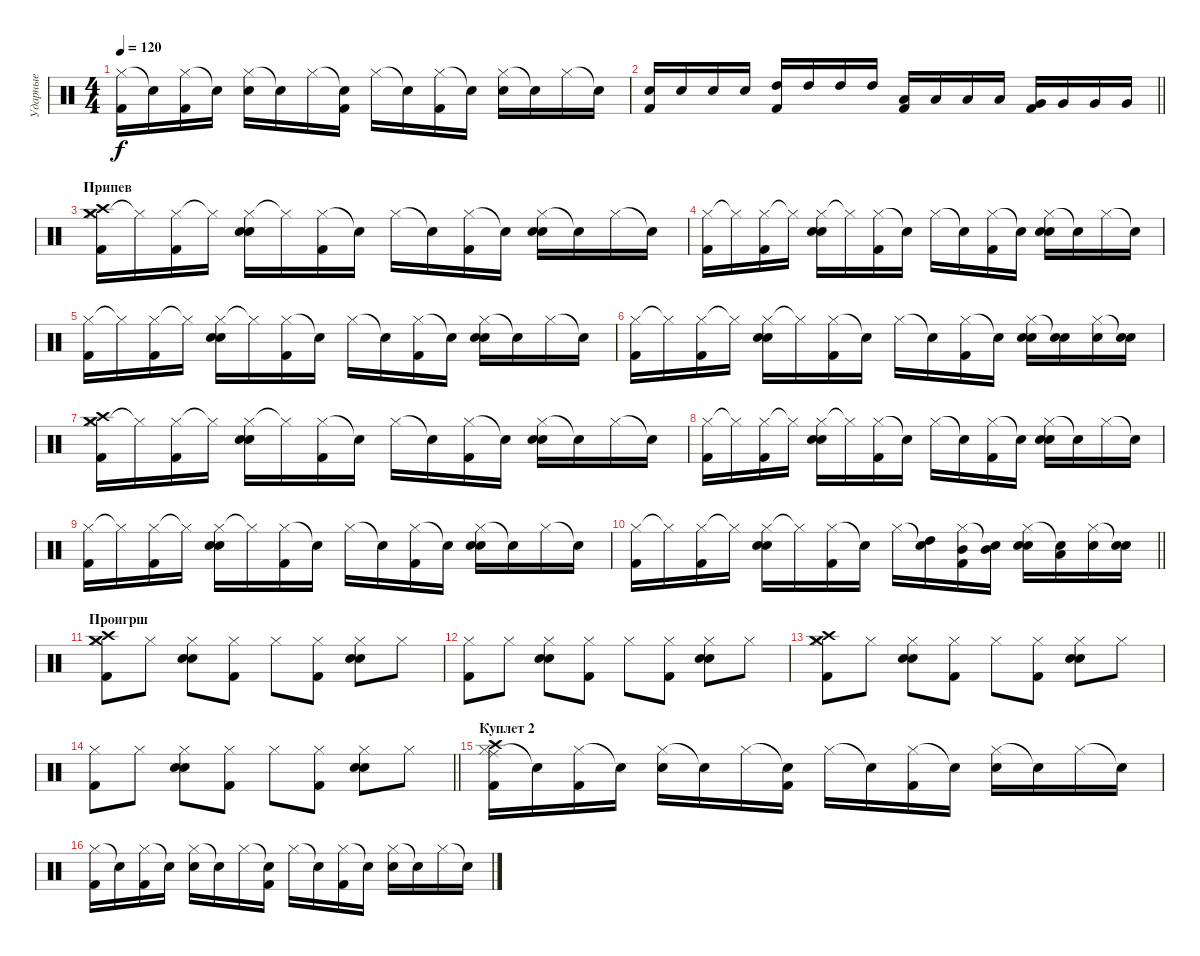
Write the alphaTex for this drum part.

\track ("Ударные" "Ударные") {instrument percussion}
\staff {score}
\articulation defaults
\ts (4 4)
\tempo 120
\clef neutral
\ks c
("Hi-Hat (closed)" "Kick (hit) 2").16{dy f} "Snare (hit)"{t}.16 ("Hi-Hat (closed)" "Kick (hit) 2").16 "Snare (hit)"{t}.16 ("Hi-Hat (closed)" "Snare (hit) 2").16 "Snare (hit)"{t}.16 "Hi-Hat (closed)".16 ("Snare (hit)"{t} "Kick (hit) 2").16 "Hi-Hat (closed)".16 "Snare (hit)"{t}.16 ("Hi-Hat (closed)" "Kick (hit) 2").16 "Snare (hit)"{t}.16 ("Hi-Hat (closed)" "Snare (hit) 2").16 "Snare (hit)"{t}.16 "Hi-Hat (closed)".16 "Snare (hit)"{t}.16 |
\barLineRight lightlight
("Snare (hit) 2" "Kick (hit) 2").16 "Snare (hit) 2".16 "Snare (hit) 2".16 "Snare (hit) 2".16 ("High Tom (hit)" "Kick (hit) 2").16 "High Tom (hit)".16 "High Tom (hit)".16 "High Tom (hit)".16 ("Low Tom (hit)" "Kick (hit) 2").16 "Low Tom (hit)".16 "Low Tom (hit)".16 "Low Tom (hit)".16 ("Very Low Tom (hit)" "Kick (hit) 2").16 "Very Low Tom (hit)".16 "Very Low Tom (hit)".16 "Very Low Tom (hit)".16 |
\section ("" "Припев")
("Hi-Hat (closed)" "Crash medium (hit)" "Crash high (hit)" "Kick (hit) 2").16 "Hi-Hat (closed)"{t}.16 ("Hi-Hat (closed)" "Kick (hit) 2").16 "Hi-Hat (closed)"{t}.16 ("Hi-Hat (closed)" "Electric Snare (hit)" "Snare (hit) 2").16 "Hi-Hat (closed)"{t}.16 ("Hi-Hat (closed)" "Kick (hit) 2").16 "Snare (hit)"{t}.16 "Hi-Hat (closed)".16 "Snare (hit)"{t}.16 ("Hi-Hat (closed)" "Kick (hit) 2").16 "Snare (hit)"{t}.16 ("Hi-Hat (closed)" "Electric Snare (hit)" "Snare (hit) 2").16 "Snare (hit)"{t}.16 "Hi-Hat (closed)".16 "Snare (hit)"{t}.16 |
("Hi-Hat (closed)" "Kick (hit) 2").16 "Hi-Hat (closed)"{t}.16 ("Hi-Hat (closed)" "Kick (hit) 2").16 "Hi-Hat (closed)"{t}.16 ("Hi-Hat (closed)" "Electric Snare (hit)" "Snare (hit) 2").16 "Hi-Hat (closed)"{t}.16 ("Hi-Hat (closed)" "Kick (hit) 2").16 "Snare (hit)"{t}.16 "Hi-Hat (closed)".16 "Snare (hit)"{t}.16 ("Hi-Hat (closed)" "Kick (hit) 2").16 "Snare (hit)"{t}.16 ("Hi-Hat (closed)" "Electric Snare (hit)" "Snare (hit) 2").16 "Snare (hit)"{t}.16 "Hi-Hat (closed)".16 "Snare (hit)"{t}.16 |
("Hi-Hat (closed)" "Kick (hit) 2").16 "Hi-Hat (closed)"{t}.16 ("Hi-Hat (closed)" "Kick (hit) 2").16 "Hi-Hat (closed)"{t}.16 ("Hi-Hat (closed)" "Electric Snare (hit)" "Snare (hit) 2").16 "Hi-Hat (closed)"{t}.16 ("Hi-Hat (closed)" "Kick (hit) 2").16 "Snare (hit)"{t}.16 "Hi-Hat (closed)".16 "Snare (hit)"{t}.16 ("Hi-Hat (closed)" "Kick (hit) 2").16 "Snare (hit)"{t}.16 ("Hi-Hat (closed)" "Electric Snare (hit)" "Snare (hit) 2").16 "Snare (hit)"{t}.16 "Hi-Hat (closed)".16 "Snare (hit)"{t}.16 |
("Hi-Hat (closed)" "Kick (hit) 2").16 "Hi-Hat (closed)"{t}.16 ("Hi-Hat (closed)" "Kick (hit) 2").16 "Hi-Hat (closed)"{t}.16 ("Hi-Hat (closed)" "Electric Snare (hit)" "Snare (hit) 2").16 "Hi-Hat (closed)"{t}.16 ("Hi-Hat (closed)" "Kick (hit) 2").16 "Snare (hit)"{t}.16 "Hi-Hat (closed)".16 "Snare (hit)"{t}.16 ("Hi-Hat (closed)" "Kick (hit) 2").16 "Snare (hit)"{t}.16 ("Hi-Hat (closed)" "Electric Snare (hit)" "Snare (hit) 2").16 ("Snare (hit)"{t} "Electric Snare (hit)").16 ("Hi-Hat (closed)" "Electric Snare (hit)").16 ("Snare (hit)"{t} "Electric Snare (hit)").16 |
("Hi-Hat (closed)" "Crash medium (hit)" "Crash high (hit)" "Kick (hit) 2").16 "Hi-Hat (closed)"{t}.16 ("Hi-Hat (closed)" "Kick (hit) 2").16 "Hi-Hat (closed)"{t}.16 ("Hi-Hat (closed)" "Electric Snare (hit)" "Snare (hit) 2").16 "Hi-Hat (closed)"{t}.16 ("Hi-Hat (closed)" "Kick (hit) 2").16 "Snare (hit)"{t}.16 "Hi-Hat (closed)".16 "Snare (hit)"{t}.16 ("Hi-Hat (closed)" "Kick (hit) 2").16 "Snare (hit)"{t}.16 ("Hi-Hat (closed)" "Electric Snare (hit)" "Snare (hit) 2").16 "Snare (hit)"{t}.16 "Hi-Hat (closed)".16 "Snare (hit)"{t}.16 |
("Hi-Hat (closed)" "Kick (hit) 2").16 "Hi-Hat (closed)"{t}.16 ("Hi-Hat (closed)" "Kick (hit) 2").16 "Hi-Hat (closed)"{t}.16 ("Hi-Hat (closed)" "Electric Snare (hit)" "Snare (hit) 2").16 "Hi-Hat (closed)"{t}.16 ("Hi-Hat (closed)" "Kick (hit) 2").16 "Snare (hit)"{t}.16 "Hi-Hat (closed)".16 "Snare (hit)"{t}.16 ("Hi-Hat (closed)" "Kick (hit) 2").16 "Snare (hit)"{t}.16 ("Hi-Hat (closed)" "Electric Snare (hit)" "Snare (hit) 2").16 "Snare (hit)"{t}.16 "Hi-Hat (closed)".16 "Snare (hit)"{t}.16 |
("Hi-Hat (closed)" "Kick (hit) 2").16 "Hi-Hat (closed)"{t}.16 ("Hi-Hat (closed)" "Kick (hit) 2").16 "Hi-Hat (closed)"{t}.16 ("Hi-Hat (closed)" "Electric Snare (hit)" "Snare (hit) 2").16 "Hi-Hat (closed)"{t}.16 ("Hi-Hat (closed)" "Kick (hit) 2").16 "Snare (hit)"{t}.16 "Hi-Hat (closed)".16 "Snare (hit)"{t}.16 ("Hi-Hat (closed)" "Kick (hit) 2").16 "Snare (hit)"{t}.16 ("Hi-Hat (closed)" "Electric Snare (hit)" "Snare (hit) 2").16 "Snare (hit)"{t}.16 "Hi-Hat (closed)".16 "Snare (hit)"{t}.16 |
\barLineRight lightlight
("Hi-Hat (closed)" "Kick (hit) 2").16 "Hi-Hat (closed)"{t}.16 ("Hi-Hat (closed)" "Kick (hit) 2").16 "Hi-Hat (closed)"{t}.16 ("Hi-Hat (closed)" "Electric Snare (hit)" "Snare (hit) 2").16 "Hi-Hat (closed)"{t}.16 ("Hi-Hat (closed)" "Kick (hit) 2").16 "Snare (hit)"{t}.16 "Hi-Hat (closed)".16 ("Snare (hit)"{t} "High Tom (hit)").16 ("Hi-Hat (closed)" "Mid Tom (hit)" "Kick (hit) 2").16 ("Snare (hit)"{t} "Mid Tom (hit)").16 ("Hi-Hat (closed)" "Electric Snare (hit)" "Snare (hit) 2").16 ("Snare (hit)"{t} "Low Tom (hit)").16 ("Hi-Hat (closed)" "Electric Snare (hit)").16 ("Snare (hit)"{t} "Electric Snare (hit)").16 |
\section ("" "Проигрш")
("Hi-Hat (closed)" "Crash high (hit)" "Crash medium (hit)" "Kick (hit) 2").8 "Hi-Hat (closed)".8 ("Hi-Hat (closed)" "Electric Snare (hit)" "Snare (hit) 2").8 ("Hi-Hat (closed)" "Kick (hit) 2").8 "Hi-Hat (closed)".8 ("Hi-Hat (closed)" "Kick (hit) 2").8 ("Hi-Hat (closed)" "Snare (hit) 2" "Electric Snare (hit)").8 "Hi-Hat (closed)".8 |
("Hi-Hat (closed)" "Kick (hit) 2").8 "Hi-Hat (closed)".8 ("Hi-Hat (closed)" "Electric Snare (hit)" "Snare (hit) 2").8 ("Hi-Hat (closed)" "Kick (hit) 2").8 "Hi-Hat (closed)".8 ("Hi-Hat (closed)" "Kick (hit) 2").8 ("Hi-Hat (closed)" "Snare (hit) 2" "Electric Snare (hit)").8 "Hi-Hat (closed)".8 |
("Hi-Hat (closed)" "Crash high (hit)" "Crash medium (hit)" "Kick (hit) 2").8 "Hi-Hat (closed)".8 ("Hi-Hat (closed)" "Electric Snare (hit)" "Snare (hit) 2").8 ("Hi-Hat (closed)" "Kick (hit) 2").8 "Hi-Hat (closed)".8 ("Hi-Hat (closed)" "Kick (hit) 2").8 ("Hi-Hat (closed)" "Snare (hit) 2" "Electric Snare (hit)").8 "Hi-Hat (closed)".8 |
\barLineRight lightlight
("Hi-Hat (closed)" "Kick (hit) 2").8 "Hi-Hat (closed)".8 ("Hi-Hat (closed)" "Electric Snare (hit)" "Snare (hit) 2").8 ("Hi-Hat (closed)" "Kick (hit) 2").8 "Hi-Hat (closed)".8 ("Hi-Hat (closed)" "Kick (hit) 2").8 ("Hi-Hat (closed)" "Snare (hit) 2" "Electric Snare (hit)").8 "Hi-Hat (closed)".8 |
\section ("" "Куплет 2")
("Hi-Hat (closed)" "Ride (middle)" "Crash high (hit)" "Kick (hit) 2").16 "Snare (hit)"{t}.16 ("Hi-Hat (closed)" "Kick (hit) 2").16 "Snare (hit)"{t}.16 ("Hi-Hat (closed)" "Snare (hit) 2").16 "Snare (hit)"{t}.16 "Hi-Hat (closed)".16 ("Snare (hit)"{t} "Kick (hit) 2").16 "Hi-Hat (closed)".16 "Snare (hit)"{t}.16 ("Hi-Hat (closed)" "Kick (hit) 2").16 "Snare (hit)"{t}.16 ("Hi-Hat (closed)" "Snare (hit) 2").16 "Snare (hit)"{t}.16 "Hi-Hat (closed)".16 "Snare (hit)"{t}.16 |
("Hi-Hat (closed)" "Kick (hit) 2").16 "Snare (hit)"{t}.16 ("Hi-Hat (closed)" "Kick (hit) 2").16 "Snare (hit)"{t}.16 ("Hi-Hat (closed)" "Snare (hit) 2").16 "Snare (hit)"{t}.16 "Hi-Hat (closed)".16 ("Snare (hit)"{t} "Kick (hit) 2").16 "Hi-Hat (closed)".16 "Snare (hit)"{t}.16 ("Hi-Hat (closed)" "Kick (hit) 2").16 "Snare (hit)"{t}.16 ("Hi-Hat (closed)" "Snare (hit) 2").16 "Snare (hit)"{t}.16 "Hi-Hat (closed)".16 "Snare (hit)"{t}.16
